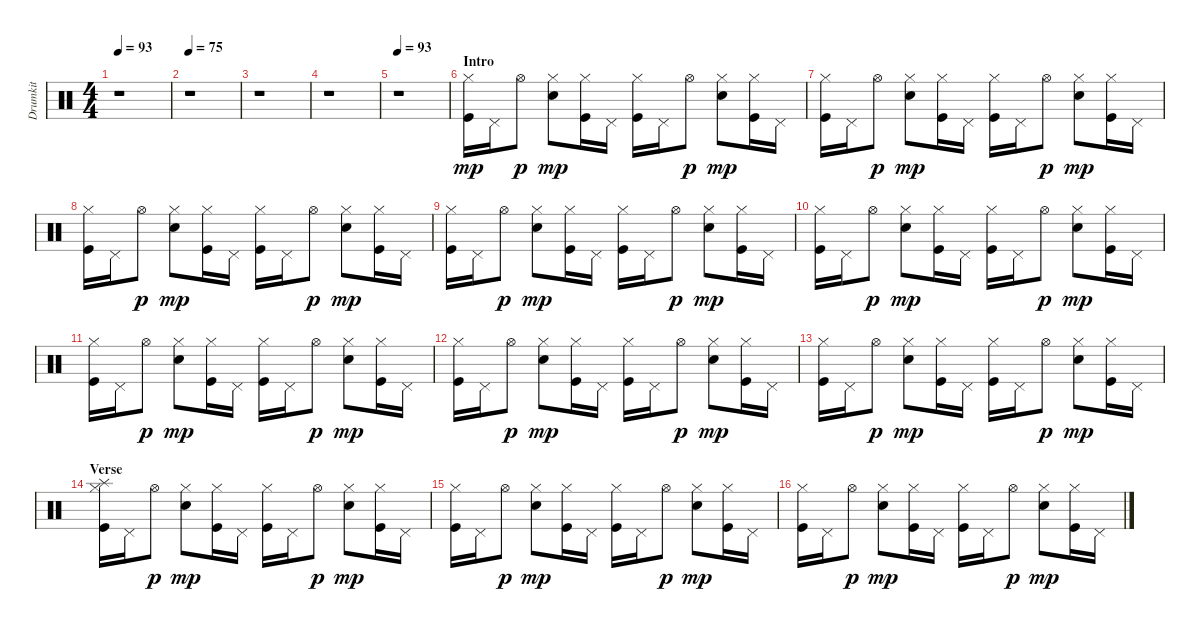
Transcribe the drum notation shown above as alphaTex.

\track ("Drumkit" "Drumkit") {instrument percussion}
\staff {score}
\articulation defaults
\ts (4 4)
\tempo 93
\clef neutral
\ks c
r.1{dy mp} |
\tempo 75
r.1 |
r.1 |
r.1 |
\tempo 93
r.1 |
\section ("" "Intro")
("Hi-Hat (closed)" "Kick (hit)").16 "Pedal Hi-Hat (hit)".16 "Hi-Hat (open)".8{dy p} ("Hi-Hat (closed)" "Snare (hit) 2").8{dy mp} ("Hi-Hat (closed)" "Kick (hit)").16 "Pedal Hi-Hat (hit)".16 ("Hi-Hat (closed)" "Kick (hit)").16 "Pedal Hi-Hat (hit)".16 "Hi-Hat (open)".8{dy p} ("Hi-Hat (closed)" "Snare (hit) 2").8{dy mp} ("Hi-Hat (closed)" "Kick (hit)").16 "Pedal Hi-Hat (hit)".16 |
("Hi-Hat (closed)" "Kick (hit)").16 "Pedal Hi-Hat (hit)".16 "Hi-Hat (open)".8{dy p} ("Hi-Hat (closed)" "Snare (hit) 2").8{dy mp} ("Hi-Hat (closed)" "Kick (hit)").16 "Pedal Hi-Hat (hit)".16 ("Hi-Hat (closed)" "Kick (hit)").16 "Pedal Hi-Hat (hit)".16 "Hi-Hat (open)".8{dy p} ("Hi-Hat (closed)" "Snare (hit) 2").8{dy mp} ("Hi-Hat (closed)" "Kick (hit)").16 "Pedal Hi-Hat (hit)".16 |
("Hi-Hat (closed)" "Kick (hit)").16 "Pedal Hi-Hat (hit)".16 "Hi-Hat (open)".8{dy p} ("Hi-Hat (closed)" "Snare (hit) 2").8{dy mp} ("Hi-Hat (closed)" "Kick (hit)").16 "Pedal Hi-Hat (hit)".16 ("Hi-Hat (closed)" "Kick (hit)").16 "Pedal Hi-Hat (hit)".16 "Hi-Hat (open)".8{dy p} ("Hi-Hat (closed)" "Snare (hit) 2").8{dy mp} ("Hi-Hat (closed)" "Kick (hit)").16 "Pedal Hi-Hat (hit)".16 |
("Hi-Hat (closed)" "Kick (hit)").16 "Pedal Hi-Hat (hit)".16 "Hi-Hat (open)".8{dy p} ("Hi-Hat (closed)" "Snare (hit) 2").8{dy mp} ("Hi-Hat (closed)" "Kick (hit)").16 "Pedal Hi-Hat (hit)".16 ("Hi-Hat (closed)" "Kick (hit)").16 "Pedal Hi-Hat (hit)".16 "Hi-Hat (open)".8{dy p} ("Hi-Hat (closed)" "Snare (hit) 2").8{dy mp} ("Hi-Hat (closed)" "Kick (hit)").16 "Pedal Hi-Hat (hit)".16 |
("Hi-Hat (closed)" "Kick (hit)").16 "Pedal Hi-Hat (hit)".16 "Hi-Hat (open)".8{dy p} ("Hi-Hat (closed)" "Snare (hit) 2").8{dy mp} ("Hi-Hat (closed)" "Kick (hit)").16 "Pedal Hi-Hat (hit)".16 ("Hi-Hat (closed)" "Kick (hit)").16 "Pedal Hi-Hat (hit)".16 "Hi-Hat (open)".8{dy p} ("Hi-Hat (closed)" "Snare (hit) 2").8{dy mp} ("Hi-Hat (closed)" "Kick (hit)").16 "Pedal Hi-Hat (hit)".16 |
("Hi-Hat (closed)" "Kick (hit)").16 "Pedal Hi-Hat (hit)".16 "Hi-Hat (open)".8{dy p} ("Hi-Hat (closed)" "Snare (hit) 2").8{dy mp} ("Hi-Hat (closed)" "Kick (hit)").16 "Pedal Hi-Hat (hit)".16 ("Hi-Hat (closed)" "Kick (hit)").16 "Pedal Hi-Hat (hit)".16 "Hi-Hat (open)".8{dy p} ("Hi-Hat (closed)" "Snare (hit) 2").8{dy mp} ("Hi-Hat (closed)" "Kick (hit)").16 "Pedal Hi-Hat (hit)".16 |
("Hi-Hat (closed)" "Kick (hit)").16 "Pedal Hi-Hat (hit)".16 "Hi-Hat (open)".8{dy p} ("Hi-Hat (closed)" "Snare (hit) 2").8{dy mp} ("Hi-Hat (closed)" "Kick (hit)").16 "Pedal Hi-Hat (hit)".16 ("Hi-Hat (closed)" "Kick (hit)").16 "Pedal Hi-Hat (hit)".16 "Hi-Hat (open)".8{dy p} ("Hi-Hat (closed)" "Snare (hit) 2").8{dy mp} ("Hi-Hat (closed)" "Kick (hit)").16 "Pedal Hi-Hat (hit)".16 |
("Hi-Hat (closed)" "Kick (hit)").16 "Pedal Hi-Hat (hit)".16 "Hi-Hat (open)".8{dy p} ("Hi-Hat (closed)" "Snare (hit) 2").8{dy mp} ("Hi-Hat (closed)" "Kick (hit)").16 "Pedal Hi-Hat (hit)".16 ("Hi-Hat (closed)" "Kick (hit)").16 "Pedal Hi-Hat (hit)".16 "Hi-Hat (open)".8{dy p} ("Hi-Hat (closed)" "Snare (hit) 2").8{dy mp} ("Hi-Hat (closed)" "Kick (hit)").16 "Pedal Hi-Hat (hit)".16 |
\section ("" "Verse")
("Hi-Hat (closed)" "Splash (hit)" "Kick (hit)").16 "Pedal Hi-Hat (hit)".16 "Hi-Hat (open)".8{dy p} ("Hi-Hat (closed)" "Snare (hit) 2").8{dy mp} ("Hi-Hat (closed)" "Kick (hit)").16 "Pedal Hi-Hat (hit)".16 ("Hi-Hat (closed)" "Kick (hit)").16 "Pedal Hi-Hat (hit)".16 "Hi-Hat (open)".8{dy p} ("Hi-Hat (closed)" "Snare (hit) 2").8{dy mp} ("Hi-Hat (closed)" "Kick (hit)").16 "Pedal Hi-Hat (hit)".16 |
("Hi-Hat (closed)" "Kick (hit)").16 "Pedal Hi-Hat (hit)".16 "Hi-Hat (open)".8{dy p} ("Hi-Hat (closed)" "Snare (hit) 2").8{dy mp} ("Hi-Hat (closed)" "Kick (hit)").16 "Pedal Hi-Hat (hit)".16 ("Hi-Hat (closed)" "Kick (hit)").16 "Pedal Hi-Hat (hit)".16 "Hi-Hat (open)".8{dy p} ("Hi-Hat (closed)" "Snare (hit) 2").8{dy mp} ("Hi-Hat (closed)" "Kick (hit)").16 "Pedal Hi-Hat (hit)".16 |
("Hi-Hat (closed)" "Kick (hit)").16 "Pedal Hi-Hat (hit)".16 "Hi-Hat (open)".8{dy p} ("Hi-Hat (closed)" "Snare (hit) 2").8{dy mp} ("Hi-Hat (closed)" "Kick (hit)").16 "Pedal Hi-Hat (hit)".16 ("Hi-Hat (closed)" "Kick (hit)").16 "Pedal Hi-Hat (hit)".16 "Hi-Hat (open)".8{dy p} ("Hi-Hat (closed)" "Snare (hit) 2").8{dy mp} ("Hi-Hat (closed)" "Kick (hit)").16 "Pedal Hi-Hat (hit)".16
